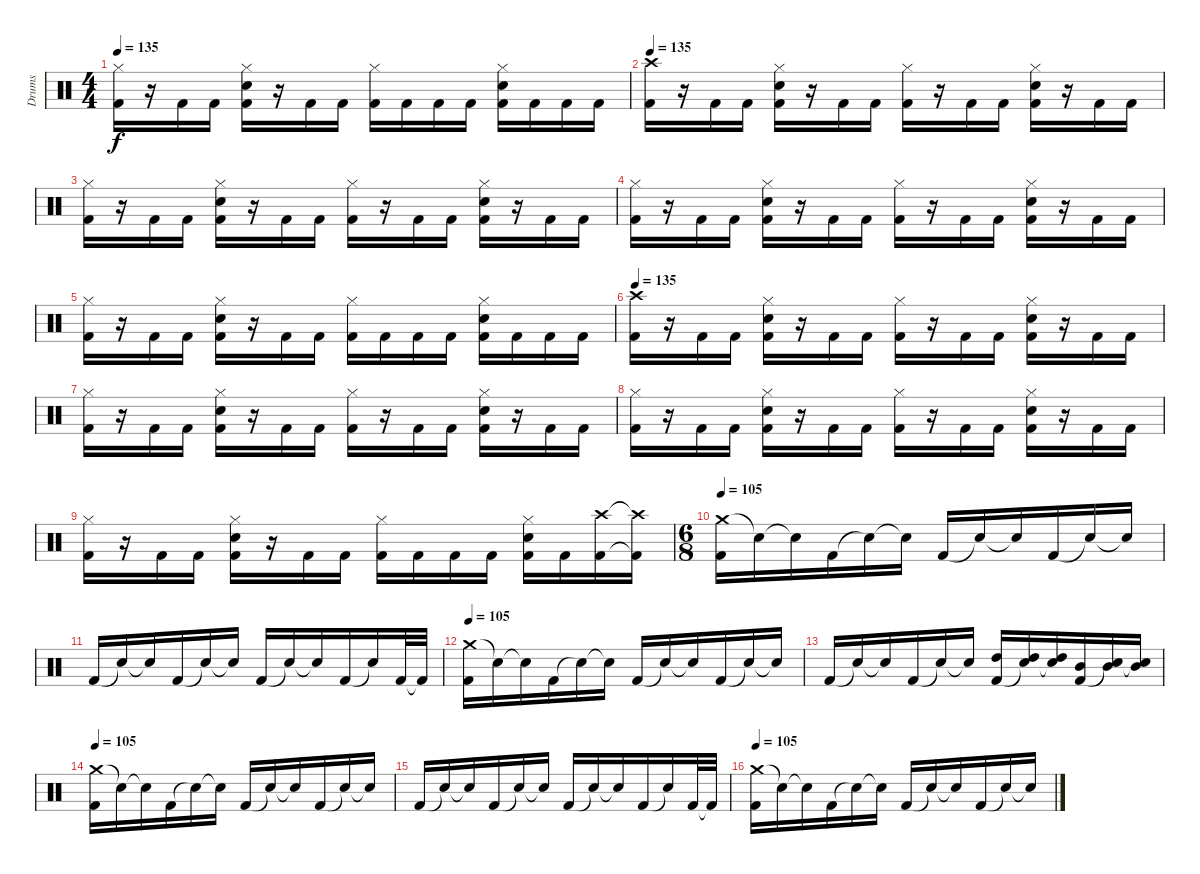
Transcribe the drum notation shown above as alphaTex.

\track ("Drums" "Drums") {instrument percussion}
\staff {score}
\articulation defaults
\ts (4 4)
\tempo 135
\clef neutral
\ks c
("Hi-Hat (closed)" "Kick (hit) 2").16{dy f} r.16 "Kick (hit) 2".16 "Kick (hit) 2".16 ("Hi-Hat (closed)" "Snare (hit) 2" "Kick (hit) 2").16 r.16 "Kick (hit) 2".16 "Kick (hit) 2".16 ("Hi-Hat (closed)" "Kick (hit) 2").16 "Kick (hit) 2".16 "Kick (hit) 2".16 "Kick (hit) 2".16 ("Hi-Hat (closed)" "Snare (hit) 2" "Kick (hit) 2").16 "Kick (hit) 2".16 "Kick (hit) 2".16 "Kick (hit) 2".16 |
\tempo 135
("Crash high (hit)" "Kick (hit) 2").16 r.16 "Kick (hit) 2".16 "Kick (hit) 2".16 ("Hi-Hat (closed)" "Snare (hit) 2" "Kick (hit) 2").16 r.16 "Kick (hit) 2".16 "Kick (hit) 2".16 ("Hi-Hat (closed)" "Kick (hit) 2").16 r.16 "Kick (hit) 2".16 "Kick (hit) 2".16 ("Hi-Hat (closed)" "Snare (hit) 2" "Kick (hit) 2").16 r.16 "Kick (hit) 2".16 "Kick (hit) 2".16 |
("Hi-Hat (closed)" "Kick (hit) 2").16 r.16 "Kick (hit) 2".16 "Kick (hit) 2".16 ("Hi-Hat (closed)" "Snare (hit) 2" "Kick (hit) 2").16 r.16 "Kick (hit) 2".16 "Kick (hit) 2".16 ("Hi-Hat (closed)" "Kick (hit) 2").16 r.16 "Kick (hit) 2".16 "Kick (hit) 2".16 ("Hi-Hat (closed)" "Snare (hit) 2" "Kick (hit) 2").16 r.16 "Kick (hit) 2".16 "Kick (hit) 2".16 |
("Hi-Hat (closed)" "Kick (hit) 2").16 r.16 "Kick (hit) 2".16 "Kick (hit) 2".16 ("Hi-Hat (closed)" "Snare (hit) 2" "Kick (hit) 2").16 r.16 "Kick (hit) 2".16 "Kick (hit) 2".16 ("Hi-Hat (closed)" "Kick (hit) 2").16 r.16 "Kick (hit) 2".16 "Kick (hit) 2".16 ("Hi-Hat (closed)" "Snare (hit) 2" "Kick (hit) 2").16 r.16 "Kick (hit) 2".16 "Kick (hit) 2".16 |
("Hi-Hat (closed)" "Kick (hit) 2").16 r.16 "Kick (hit) 2".16 "Kick (hit) 2".16 ("Hi-Hat (closed)" "Snare (hit) 2" "Kick (hit) 2").16 r.16 "Kick (hit) 2".16 "Kick (hit) 2".16 ("Hi-Hat (closed)" "Kick (hit) 2").16 "Kick (hit) 2".16 "Kick (hit) 2".16 "Kick (hit) 2".16 ("Hi-Hat (closed)" "Snare (hit) 2" "Kick (hit) 2").16 "Kick (hit) 2".16 "Kick (hit) 2".16 "Kick (hit) 2".16 |
\tempo 135
("Crash high (hit)" "Kick (hit) 2").16 r.16 "Kick (hit) 2".16 "Kick (hit) 2".16 ("Hi-Hat (closed)" "Snare (hit) 2" "Kick (hit) 2").16 r.16 "Kick (hit) 2".16 "Kick (hit) 2".16 ("Hi-Hat (closed)" "Kick (hit) 2").16 r.16 "Kick (hit) 2".16 "Kick (hit) 2".16 ("Hi-Hat (closed)" "Snare (hit) 2" "Kick (hit) 2").16 r.16 "Kick (hit) 2".16 "Kick (hit) 2".16 |
("Hi-Hat (closed)" "Kick (hit) 2").16 r.16 "Kick (hit) 2".16 "Kick (hit) 2".16 ("Hi-Hat (closed)" "Snare (hit) 2" "Kick (hit) 2").16 r.16 "Kick (hit) 2".16 "Kick (hit) 2".16 ("Hi-Hat (closed)" "Kick (hit) 2").16 r.16 "Kick (hit) 2".16 "Kick (hit) 2".16 ("Hi-Hat (closed)" "Snare (hit) 2" "Kick (hit) 2").16 r.16 "Kick (hit) 2".16 "Kick (hit) 2".16 |
("Hi-Hat (closed)" "Kick (hit) 2").16 r.16 "Kick (hit) 2".16 "Kick (hit) 2".16 ("Hi-Hat (closed)" "Snare (hit) 2" "Kick (hit) 2").16 r.16 "Kick (hit) 2".16 "Kick (hit) 2".16 ("Hi-Hat (closed)" "Kick (hit) 2").16 r.16 "Kick (hit) 2".16 "Kick (hit) 2".16 ("Hi-Hat (closed)" "Snare (hit) 2" "Kick (hit) 2").16 r.16 "Kick (hit) 2".16 "Kick (hit) 2".16 |
("Hi-Hat (closed)" "Kick (hit) 2").16 r.16 "Kick (hit) 2".16 "Kick (hit) 2".16 ("Hi-Hat (closed)" "Snare (hit) 2" "Kick (hit) 2").16 r.16 "Kick (hit) 2".16 "Kick (hit) 2".16 ("Hi-Hat (closed)" "Kick (hit) 2").16 "Kick (hit) 2".16 "Kick (hit) 2".16 "Kick (hit) 2".16 ("Hi-Hat (closed)" "Snare (hit) 2" "Kick (hit) 2").16 "Kick (hit) 2".16 ("Crash high (hit)" "Kick (hit) 2").16 ("Crash high (hit)"{t} "Kick (hit) 2"{t}).16 |
\ts (6 8)
\tempo 105
("Crash medium (hit)" "Kick (hit) 2").16 "Snare (hit)"{t}.16 "Snare (hit)"{t}.16 "Kick (hit) 2".16 "Snare (hit)"{t}.16 "Snare (hit)"{t}.16 "Kick (hit) 2".16 "Snare (hit)"{t}.16 "Snare (hit)"{t}.16 "Kick (hit) 2".16 "Snare (hit)"{t}.16 "Snare (hit)"{t}.16 |
"Kick (hit) 2".16 "Snare (hit)"{t}.16 "Snare (hit)"{t}.16 "Kick (hit) 2".16 "Snare (hit)"{t}.16 "Snare (hit)"{t}.16 "Kick (hit) 2".16 "Snare (hit)"{t}.16 "Snare (hit)"{t}.16 "Kick (hit) 2".16 "Snare (hit)"{t}.16 "Kick (hit) 2".32 "Kick (hit) 2"{t}.32 |
\tempo 105
("Crash medium (hit)" "Kick (hit) 2").16 "Snare (hit)"{t}.16 "Snare (hit)"{t}.16 "Kick (hit) 2".16 "Snare (hit)"{t}.16 "Snare (hit)"{t}.16 "Kick (hit) 2".16 "Snare (hit)"{t}.16 "Snare (hit)"{t}.16 "Kick (hit) 2".16 "Snare (hit)"{t}.16 "Snare (hit)"{t}.16 |
"Kick (hit) 2".16 "Snare (hit)"{t}.16 "Snare (hit)"{t}.16 "Kick (hit) 2".16 "Snare (hit)"{t}.16 "Snare (hit)"{t}.16 ("High Tom (hit)" "Kick (hit) 2").16 ("High Tom (hit)" "Snare (hit)"{t}).16 ("High Tom (hit)" "Snare (hit)"{t}).16 ("Mid Tom (hit)" "Kick (hit) 2").16 ("Mid Tom (hit)" "Snare (hit)"{t}).16 ("Mid Tom (hit)" "Snare (hit)"{t}).16 |
\tempo 105
("Crash medium (hit)" "Kick (hit) 2").16 "Snare (hit)"{t}.16 "Snare (hit)"{t}.16 "Kick (hit) 2".16 "Snare (hit)"{t}.16 "Snare (hit)"{t}.16 "Kick (hit) 2".16 "Snare (hit)"{t}.16 "Snare (hit)"{t}.16 "Kick (hit) 2".16 "Snare (hit)"{t}.16 "Snare (hit)"{t}.16 |
"Kick (hit) 2".16 "Snare (hit)"{t}.16 "Snare (hit)"{t}.16 "Kick (hit) 2".16 "Snare (hit)"{t}.16 "Snare (hit)"{t}.16 "Kick (hit) 2".16 "Snare (hit)"{t}.16 "Snare (hit)"{t}.16 "Kick (hit) 2".16 "Snare (hit)"{t}.16 "Kick (hit) 2".32 "Kick (hit) 2"{t}.32 |
\tempo 105
("Crash medium (hit)" "Kick (hit) 2").16 "Snare (hit)"{t}.16 "Snare (hit)"{t}.16 "Kick (hit) 2".16 "Snare (hit)"{t}.16 "Snare (hit)"{t}.16 "Kick (hit) 2".16 "Snare (hit)"{t}.16 "Snare (hit)"{t}.16 "Kick (hit) 2".16 "Snare (hit)"{t}.16 "Snare (hit)"{t}.16
